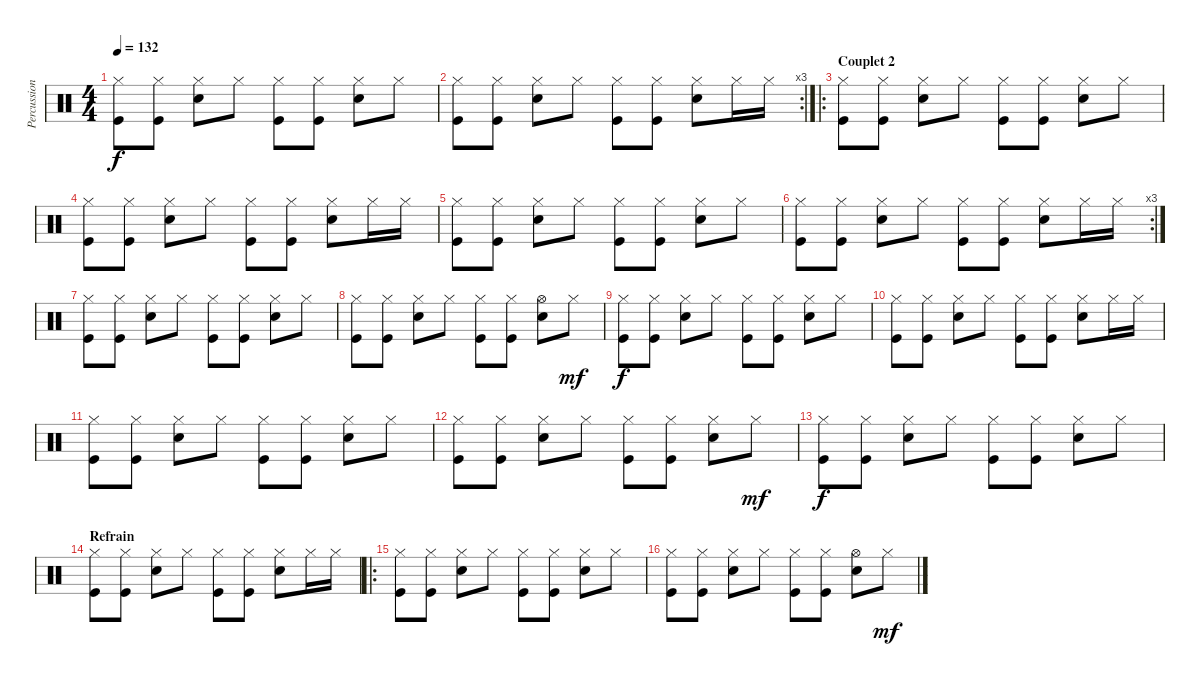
\track ("Percussions" "Percussion") {instrument percussion}
\staff {score}
\articulation defaults
\ts (4 4)
\tempo 132
\clef neutral
\ks c
("Hi-Hat (closed)" "Kick (hit)").8{dy f} ("Hi-Hat (closed)" "Kick (hit)").8 ("Hi-Hat (closed)" "Electric Snare (hit)").8 "Hi-Hat (closed)".8 ("Hi-Hat (closed)" "Kick (hit)").8 ("Hi-Hat (closed)" "Kick (hit)").8 ("Hi-Hat (closed)" "Electric Snare (hit)").8 "Hi-Hat (closed)".8 |
\rc 3
("Hi-Hat (closed)" "Kick (hit)").8 ("Hi-Hat (closed)" "Kick (hit)").8 ("Hi-Hat (closed)" "Electric Snare (hit)").8 "Hi-Hat (closed)".8 ("Hi-Hat (closed)" "Kick (hit)").8 ("Hi-Hat (closed)" "Kick (hit)").8 ("Hi-Hat (closed)" "Electric Snare (hit)").8 "Hi-Hat (closed)".16 "Hi-Hat (closed)".16 |
\ro
\section ("" "Couplet 2")
("Hi-Hat (closed)" "Kick (hit)").8{volume 13} ("Hi-Hat (closed)" "Kick (hit)").8 ("Hi-Hat (closed)" "Electric Snare (hit)").8 "Hi-Hat (closed)".8 ("Hi-Hat (closed)" "Kick (hit)").8 ("Hi-Hat (closed)" "Kick (hit)").8 ("Hi-Hat (closed)" "Electric Snare (hit)").8 "Hi-Hat (closed)".8 |
("Hi-Hat (closed)" "Kick (hit)").8 ("Hi-Hat (closed)" "Kick (hit)").8 ("Hi-Hat (closed)" "Electric Snare (hit)").8 "Hi-Hat (closed)".8 ("Hi-Hat (closed)" "Kick (hit)").8 ("Hi-Hat (closed)" "Kick (hit)").8 ("Hi-Hat (closed)" "Electric Snare (hit)").8 "Hi-Hat (closed)".16 "Hi-Hat (closed)".16 |
("Hi-Hat (closed)" "Kick (hit)").8 ("Hi-Hat (closed)" "Kick (hit)").8 ("Hi-Hat (closed)" "Electric Snare (hit)").8 "Hi-Hat (closed)".8 ("Hi-Hat (closed)" "Kick (hit)").8 ("Hi-Hat (closed)" "Kick (hit)").8 ("Hi-Hat (closed)" "Electric Snare (hit)").8 "Hi-Hat (closed)".8 |
\rc 3
("Hi-Hat (closed)" "Kick (hit)").8 ("Hi-Hat (closed)" "Kick (hit)").8 ("Hi-Hat (closed)" "Electric Snare (hit)").8 "Hi-Hat (closed)".8 ("Hi-Hat (closed)" "Kick (hit)").8 ("Hi-Hat (closed)" "Kick (hit)").8 ("Hi-Hat (closed)" "Electric Snare (hit)").8 "Hi-Hat (closed)".16 "Hi-Hat (closed)".16 |
("Hi-Hat (closed)" "Kick (hit)").8 ("Hi-Hat (closed)" "Kick (hit)").8 ("Hi-Hat (closed)" "Electric Snare (hit)").8 "Hi-Hat (closed)".8 ("Hi-Hat (closed)" "Kick (hit)").8 ("Hi-Hat (closed)" "Kick (hit)").8 ("Hi-Hat (closed)" "Electric Snare (hit)").8 "Hi-Hat (closed)".8 |
("Hi-Hat (closed)" "Kick (hit)").8 ("Hi-Hat (closed)" "Kick (hit)").8 ("Hi-Hat (closed)" "Electric Snare (hit)").8 "Hi-Hat (closed)".8 ("Hi-Hat (closed)" "Kick (hit)").8 ("Hi-Hat (closed)" "Kick (hit)").8 ("Hi-Hat (open)" "Electric Snare (hit)").8 "Hi-Hat (closed)".8{dy mf} |
("Hi-Hat (closed)" "Kick (hit)").8{dy f} ("Hi-Hat (closed)" "Kick (hit)").8 ("Hi-Hat (closed)" "Electric Snare (hit)").8 "Hi-Hat (closed)".8 ("Hi-Hat (closed)" "Kick (hit)").8 ("Hi-Hat (closed)" "Kick (hit)").8 ("Hi-Hat (closed)" "Electric Snare (hit)").8 "Hi-Hat (closed)".8 |
("Hi-Hat (closed)" "Kick (hit)").8 ("Hi-Hat (closed)" "Kick (hit)").8 ("Hi-Hat (closed)" "Electric Snare (hit)").8 "Hi-Hat (closed)".8 ("Hi-Hat (closed)" "Kick (hit)").8 ("Hi-Hat (closed)" "Kick (hit)").8 ("Hi-Hat (closed)" "Electric Snare (hit)").8 "Hi-Hat (closed)".16 "Hi-Hat (closed)".16 |
("Hi-Hat (closed)" "Kick (hit)").8 ("Hi-Hat (closed)" "Kick (hit)").8 ("Hi-Hat (closed)" "Electric Snare (hit)").8 "Hi-Hat (closed)".8 ("Hi-Hat (closed)" "Kick (hit)").8 ("Hi-Hat (closed)" "Kick (hit)").8 ("Hi-Hat (closed)" "Electric Snare (hit)").8 "Hi-Hat (closed)".8 |
("Hi-Hat (closed)" "Kick (hit)").8 ("Hi-Hat (closed)" "Kick (hit)").8 ("Hi-Hat (closed)" "Electric Snare (hit)").8 "Hi-Hat (closed)".8 ("Hi-Hat (closed)" "Kick (hit)").8 ("Hi-Hat (closed)" "Kick (hit)").8 ("Hi-Hat (closed)" "Electric Snare (hit)").8 "Hi-Hat (closed)".8{dy mf} |
("Hi-Hat (closed)" "Kick (hit)").8{dy f} ("Hi-Hat (closed)" "Kick (hit)").8 ("Hi-Hat (closed)" "Electric Snare (hit)").8 "Hi-Hat (closed)".8 ("Hi-Hat (closed)" "Kick (hit)").8 ("Hi-Hat (closed)" "Kick (hit)").8 ("Hi-Hat (closed)" "Electric Snare (hit)").8 "Hi-Hat (closed)".8 |
\section ("" "Refrain")
("Hi-Hat (closed)" "Kick (hit)").8 ("Hi-Hat (closed)" "Kick (hit)").8 ("Hi-Hat (closed)" "Electric Snare (hit)").8 "Hi-Hat (closed)".8 ("Hi-Hat (closed)" "Kick (hit)").8 ("Hi-Hat (closed)" "Kick (hit)").8 ("Hi-Hat (closed)" "Electric Snare (hit)").8 "Hi-Hat (closed)".16 "Hi-Hat (closed)".16 |
\ro
("Hi-Hat (closed)" "Kick (hit)").8 ("Hi-Hat (closed)" "Kick (hit)").8 ("Hi-Hat (closed)" "Electric Snare (hit)").8 "Hi-Hat (closed)".8 ("Hi-Hat (closed)" "Kick (hit)").8 ("Hi-Hat (closed)" "Kick (hit)").8 ("Hi-Hat (closed)" "Electric Snare (hit)").8 "Hi-Hat (closed)".8 |
("Hi-Hat (closed)" "Kick (hit)").8 ("Hi-Hat (closed)" "Kick (hit)").8 ("Hi-Hat (closed)" "Electric Snare (hit)").8 "Hi-Hat (closed)".8 ("Hi-Hat (closed)" "Kick (hit)").8 ("Hi-Hat (closed)" "Kick (hit)").8 ("Hi-Hat (open)" "Electric Snare (hit)").8 "Hi-Hat (closed)".8{dy mf}
